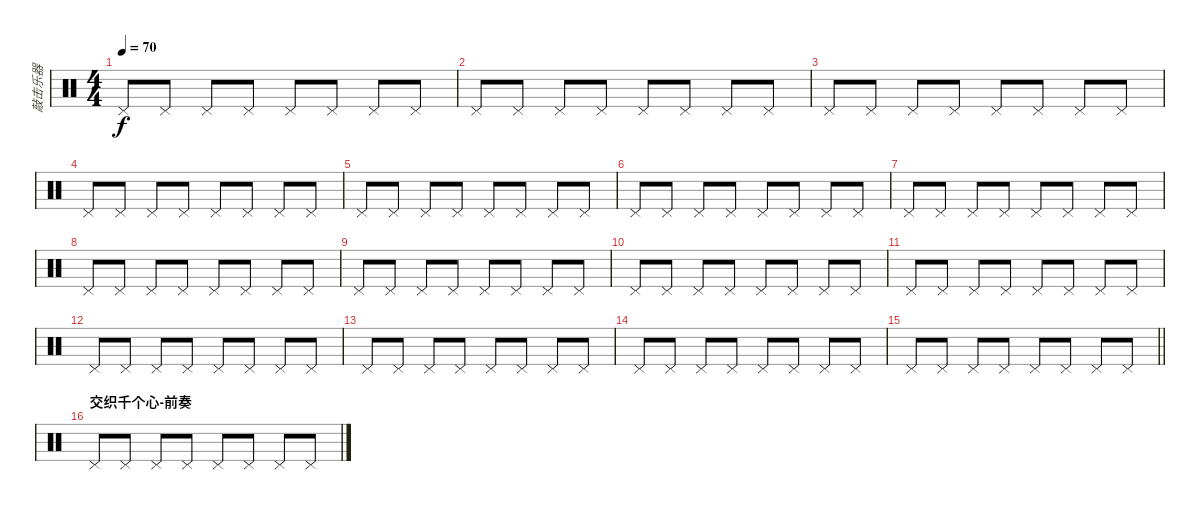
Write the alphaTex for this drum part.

\track ("敲击乐器" "敲击乐器") {instrument percussion}
\staff {score}
\articulation defaults
\ts (4 4)
\tempo 70
\clef neutral
\ks c "Pedal Hi-Hat (hit)".8{dy f} "Pedal Hi-Hat (hit)".8 "Pedal Hi-Hat (hit)".8 "Pedal Hi-Hat (hit)".8 "Pedal Hi-Hat (hit)".8 "Pedal Hi-Hat (hit)".8 "Pedal Hi-Hat (hit)".8 "Pedal Hi-Hat (hit)".8
|
"Pedal Hi-Hat (hit)".8 "Pedal Hi-Hat (hit)".8 "Pedal Hi-Hat (hit)".8 "Pedal Hi-Hat (hit)".8 "Pedal Hi-Hat (hit)".8 "Pedal Hi-Hat (hit)".8 "Pedal Hi-Hat (hit)".8 "Pedal Hi-Hat (hit)".8 |
"Pedal Hi-Hat (hit)".8 "Pedal Hi-Hat (hit)".8 "Pedal Hi-Hat (hit)".8 "Pedal Hi-Hat (hit)".8 "Pedal Hi-Hat (hit)".8 "Pedal Hi-Hat (hit)".8 "Pedal Hi-Hat (hit)".8 "Pedal Hi-Hat (hit)".8 |
"Pedal Hi-Hat (hit)".8 "Pedal Hi-Hat (hit)".8 "Pedal Hi-Hat (hit)".8 "Pedal Hi-Hat (hit)".8 "Pedal Hi-Hat (hit)".8 "Pedal Hi-Hat (hit)".8 "Pedal Hi-Hat (hit)".8 "Pedal Hi-Hat (hit)".8 |
"Pedal Hi-Hat (hit)".8 "Pedal Hi-Hat (hit)".8 "Pedal Hi-Hat (hit)".8 "Pedal Hi-Hat (hit)".8 "Pedal Hi-Hat (hit)".8 "Pedal Hi-Hat (hit)".8 "Pedal Hi-Hat (hit)".8 "Pedal Hi-Hat (hit)".8 |
"Pedal Hi-Hat (hit)".8 "Pedal Hi-Hat (hit)".8 "Pedal Hi-Hat (hit)".8 "Pedal Hi-Hat (hit)".8 "Pedal Hi-Hat (hit)".8 "Pedal Hi-Hat (hit)".8 "Pedal Hi-Hat (hit)".8 "Pedal Hi-Hat (hit)".8 |
"Pedal Hi-Hat (hit)".8 "Pedal Hi-Hat (hit)".8 "Pedal Hi-Hat (hit)".8 "Pedal Hi-Hat (hit)".8 "Pedal Hi-Hat (hit)".8 "Pedal Hi-Hat (hit)".8 "Pedal Hi-Hat (hit)".8 "Pedal Hi-Hat (hit)".8 |
"Pedal Hi-Hat (hit)".8 "Pedal Hi-Hat (hit)".8 "Pedal Hi-Hat (hit)".8 "Pedal Hi-Hat (hit)".8 "Pedal Hi-Hat (hit)".8 "Pedal Hi-Hat (hit)".8 "Pedal Hi-Hat (hit)".8 "Pedal Hi-Hat (hit)".8 |
"Pedal Hi-Hat (hit)".8 "Pedal Hi-Hat (hit)".8 "Pedal Hi-Hat (hit)".8 "Pedal Hi-Hat (hit)".8 "Pedal Hi-Hat (hit)".8 "Pedal Hi-Hat (hit)".8 "Pedal Hi-Hat (hit)".8 "Pedal Hi-Hat (hit)".8 |
"Pedal Hi-Hat (hit)".8 "Pedal Hi-Hat (hit)".8 "Pedal Hi-Hat (hit)".8 "Pedal Hi-Hat (hit)".8 "Pedal Hi-Hat (hit)".8 "Pedal Hi-Hat (hit)".8 "Pedal Hi-Hat (hit)".8 "Pedal Hi-Hat (hit)".8 |
"Pedal Hi-Hat (hit)".8 "Pedal Hi-Hat (hit)".8 "Pedal Hi-Hat (hit)".8 "Pedal Hi-Hat (hit)".8 "Pedal Hi-Hat (hit)".8 "Pedal Hi-Hat (hit)".8 "Pedal Hi-Hat (hit)".8 "Pedal Hi-Hat (hit)".8 |
"Pedal Hi-Hat (hit)".8 "Pedal Hi-Hat (hit)".8 "Pedal Hi-Hat (hit)".8 "Pedal Hi-Hat (hit)".8 "Pedal Hi-Hat (hit)".8 "Pedal Hi-Hat (hit)".8 "Pedal Hi-Hat (hit)".8 "Pedal Hi-Hat (hit)".8 |
"Pedal Hi-Hat (hit)".8 "Pedal Hi-Hat (hit)".8 "Pedal Hi-Hat (hit)".8 "Pedal Hi-Hat (hit)".8 "Pedal Hi-Hat (hit)".8 "Pedal Hi-Hat (hit)".8 "Pedal Hi-Hat (hit)".8 "Pedal Hi-Hat (hit)".8 |
"Pedal Hi-Hat (hit)".8 "Pedal Hi-Hat (hit)".8 "Pedal Hi-Hat (hit)".8 "Pedal Hi-Hat (hit)".8 "Pedal Hi-Hat (hit)".8 "Pedal Hi-Hat (hit)".8 "Pedal Hi-Hat (hit)".8 "Pedal Hi-Hat (hit)".8 |
\barLineRight lightlight "Pedal Hi-Hat (hit)".8 "Pedal Hi-Hat (hit)".8 "Pedal Hi-Hat (hit)".8 "Pedal Hi-Hat (hit)".8 "Pedal Hi-Hat (hit)".8 "Pedal Hi-Hat (hit)".8 "Pedal Hi-Hat (hit)".8 "Pedal Hi-Hat (hit)".8
|
\section ("" "交织千个心-前奏")
"Pedal Hi-Hat (hit)".8 "Pedal Hi-Hat (hit)".8 "Pedal Hi-Hat (hit)".8 "Pedal Hi-Hat (hit)".8 "Pedal Hi-Hat (hit)".8 "Pedal Hi-Hat (hit)".8 "Pedal Hi-Hat (hit)".8 "Pedal Hi-Hat (hit)".8
